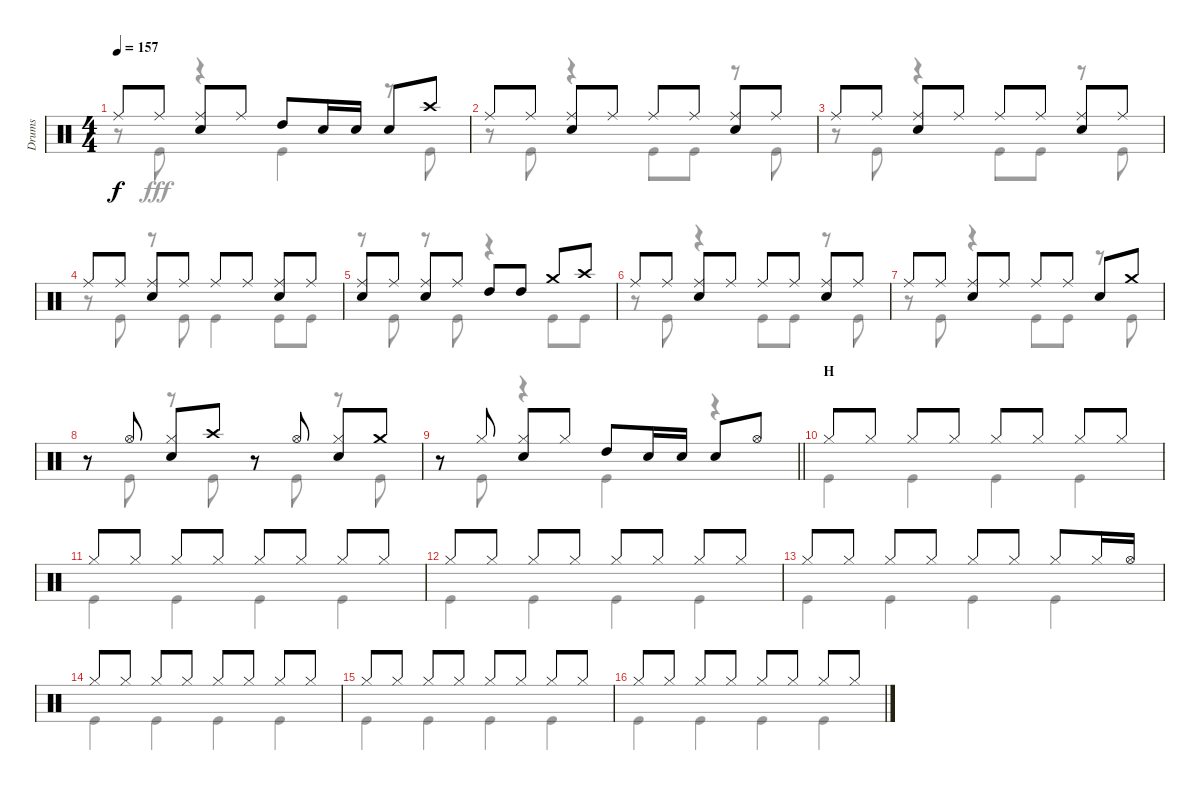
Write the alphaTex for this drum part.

\track ("Drums" "Drums") {instrument percussion}
\staff {score}
\articulation defaults
\voice
\ts (4 4)
\tempo 157
\clef neutral
\ks c "Ride (middle)".8{dy f} "Ride (middle)".8
("Ride (middle)" "Snare (hit) 2").8 "Ride (middle)".8 "High Tom (hit)".8 "Snare (hit) 2".16 "Snare (hit) 2".16 "Snare (hit) 2".8 "Crash high (hit)".8 |
"Ride (middle)".8 "Ride (middle)".8 ("Ride (middle)" "Snare (hit) 2").8 "Ride (middle)".8 "Ride (middle)".8 "Ride (middle)".8 ("Ride (middle)" "Snare (hit) 2").8 "Ride (middle)".8 |
"Ride (middle)".8 "Ride (middle)".8 ("Ride (middle)" "Snare (hit) 2").8 "Ride (middle)".8 "Ride (middle)".8 "Ride (middle)".8 ("Ride (middle)" "Snare (hit) 2").8 "Ride (middle)".8 |
"Ride (middle)".8 "Ride (middle)".8 ("Ride (middle)" "Snare (hit) 2").8 "Ride (middle)".8 "Ride (middle)".8 "Ride (middle)".8 ("Ride (middle)" "Snare (hit) 2").8 "Ride (middle)".8 |
("Ride (middle)" "Snare (hit) 2").8 "Ride (middle)".8 ("Ride (middle)" "Snare (hit) 2").8 "Ride (middle)".8 "High Tom (hit)".8 "High Tom (hit)".8 "Crash medium (hit)".8 "Crash high (hit)".8 |
"Ride (middle)".8 "Ride (middle)".8 ("Ride (middle)" "Snare (hit) 2").8 "Ride (middle)".8 "Ride (middle)".8 "Ride (middle)".8 ("Ride (middle)" "Snare (hit) 2").8 "Ride (middle)".8 |
"Ride (middle)".8 "Ride (middle)".8 ("Ride (middle)" "Snare (hit) 2").8 "Ride (middle)".8 "Ride (middle)".8 "Ride (middle)".8 "Snare (hit) 2".8 "Crash medium (hit)".8 |
r.8 "Hi-Hat (open)".8 ("Hi-Hat (closed)" "Snare (hit) 2").8 "Crash high (hit)".8 r.8 "Hi-Hat (open)".8 ("Hi-Hat (closed)" "Snare (hit) 2").8 "Crash medium (hit)".8 |
\barLineRight lightlight
r.8 "Hi-Hat (closed)".8 ("Hi-Hat (closed)" "Snare (hit) 2").8 "Hi-Hat (closed)".8 "High Tom (hit)".8 "Snare (hit) 2".16 "Snare (hit) 2".16 "Snare (hit) 2".8 "Hi-Hat (open)".8 |
\section ("" "H")
"Hi-Hat (closed)".8 "Hi-Hat (closed)".8 "Hi-Hat (closed)".8 "Hi-Hat (closed)".8 "Hi-Hat (closed)".8 "Hi-Hat (closed)".8 "Hi-Hat (closed)".8 "Hi-Hat (closed)".8 |
"Hi-Hat (closed)".8 "Hi-Hat (closed)".8 "Hi-Hat (closed)".8 "Hi-Hat (closed)".8 "Hi-Hat (closed)".8 "Hi-Hat (closed)".8 "Hi-Hat (closed)".8 "Hi-Hat (closed)".8 |
"Hi-Hat (closed)".8 "Hi-Hat (closed)".8 "Hi-Hat (closed)".8 "Hi-Hat (closed)".8 "Hi-Hat (closed)".8 "Hi-Hat (closed)".8 "Hi-Hat (closed)".8 "Hi-Hat (closed)".8 |
"Hi-Hat (closed)".8 "Hi-Hat (closed)".8 "Hi-Hat (closed)".8 "Hi-Hat (closed)".8 "Hi-Hat (closed)".8 "Hi-Hat (closed)".8 "Hi-Hat (closed)".8 "Hi-Hat (closed)".16 "Hi-Hat (open)".16 |
"Hi-Hat (closed)".8 "Hi-Hat (closed)".8 "Hi-Hat (closed)".8 "Hi-Hat (closed)".8 "Hi-Hat (closed)".8 "Hi-Hat (closed)".8 "Hi-Hat (closed)".8 "Hi-Hat (closed)".8 |
"Hi-Hat (closed)".8 "Hi-Hat (closed)".8 "Hi-Hat (closed)".8 "Hi-Hat (closed)".8 "Hi-Hat (closed)".8 "Hi-Hat (closed)".8 "Hi-Hat (closed)".8 "Hi-Hat (closed)".8 |
"Hi-Hat (closed)".8 "Hi-Hat (closed)".8 "Hi-Hat (closed)".8 "Hi-Hat (closed)".8 "Hi-Hat (closed)".8 "Hi-Hat (closed)".8 "Hi-Hat (closed)".8 "Hi-Hat (closed)".8
\voice
\clef neutral
\ottava regular
\simile none
\ks c
r.8{dy fff} "Kick (hit)".8 r.4 "Kick (hit)".4 r.8 "Kick (hit)".8 |
r.8 "Kick (hit)".8 r.4 "Kick (hit)".8 "Kick (hit)".8 r.8 "Kick (hit)".8 |
r.8 "Kick (hit)".8 r.4 "Kick (hit)".8 "Kick (hit)".8 r.8 "Kick (hit)".8 |
r.8 "Kick (hit)".8 r.8 "Kick (hit)".8 "Kick (hit)".4 "Kick (hit)".8 "Kick (hit)".8 |
r.8 "Kick (hit)".8 r.8 "Kick (hit)".8 r.4 "Kick (hit)".8 "Kick (hit)".8 |
r.8 "Kick (hit)".8 r.4 "Kick (hit)".8 "Kick (hit)".8 r.8 "Kick (hit)".8 |
r.8 "Kick (hit)".8 r.4 "Kick (hit)".8 "Kick (hit)".8 r.8 "Kick (hit)".8 |
r.8 "Kick (hit)".8 r.8 "Kick (hit)".8 r.8 "Kick (hit)".8 r.8 "Kick (hit)".8 |
\barLineRight lightlight
r.8 "Kick (hit)".8 r.4 "Kick (hit)".4 r.4 |
"Kick (hit)".4 "Kick (hit)".4 "Kick (hit)".4 "Kick (hit)".4 |
"Kick (hit)".4 "Kick (hit)".4 "Kick (hit)".4 "Kick (hit)".4 |
"Kick (hit)".4 "Kick (hit)".4 "Kick (hit)".4 "Kick (hit)".4 |
"Kick (hit)".4 "Kick (hit)".4 "Kick (hit)".4 "Kick (hit)".4 |
"Kick (hit)".4 "Kick (hit)".4 "Kick (hit)".4 "Kick (hit)".4 |
"Kick (hit)".4 "Kick (hit)".4 "Kick (hit)".4 "Kick (hit)".4 |
"Kick (hit)".4 "Kick (hit)".4 "Kick (hit)".4 "Kick (hit)".4
